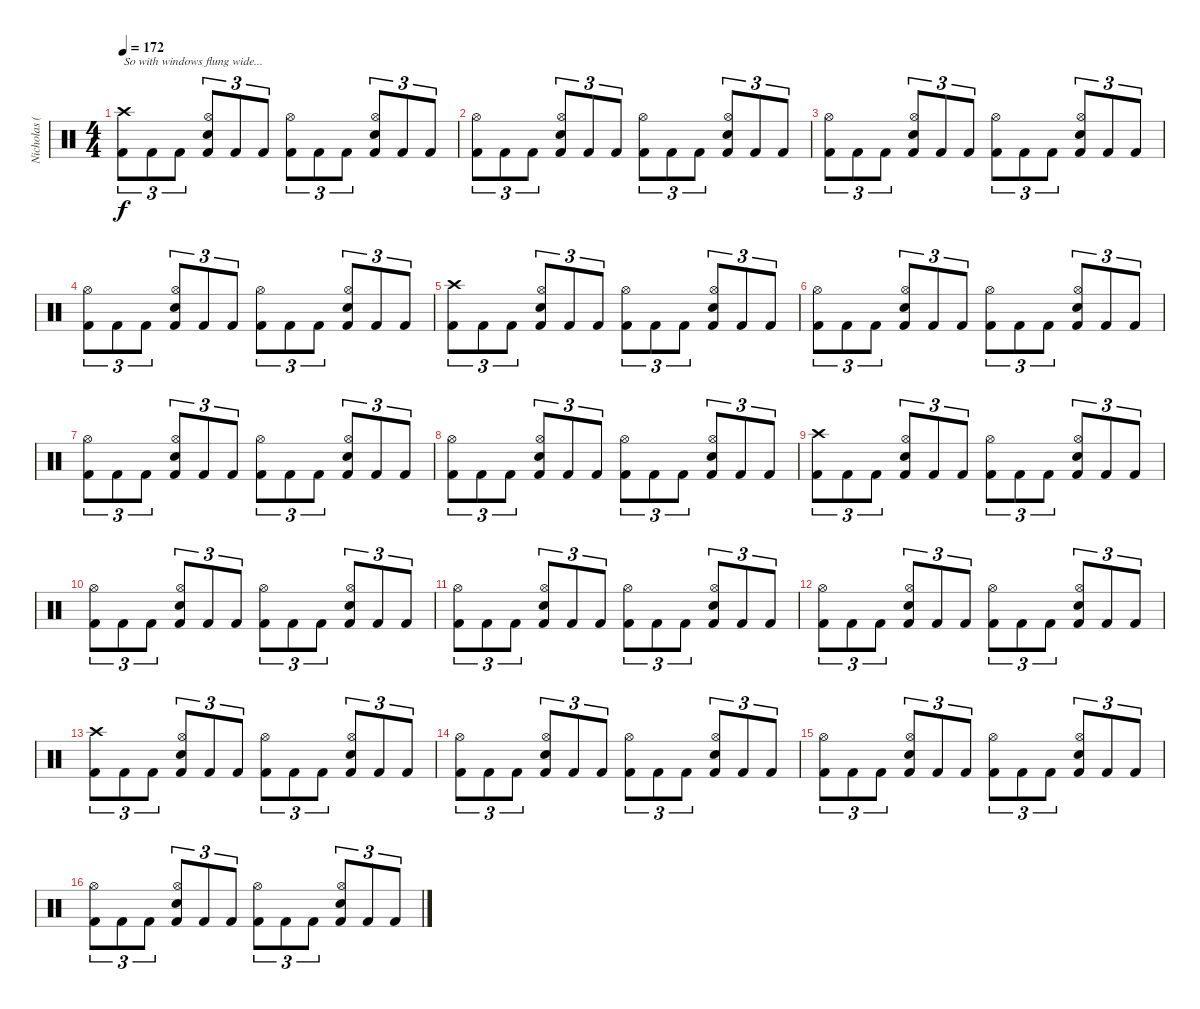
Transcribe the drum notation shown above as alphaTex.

\track ("Nicholas (Drums)" "Nicholas (") {instrument percussion}
\staff {score}
\articulation defaults
\ts (4 4)
\tempo 172
\clef neutral
\ks c
("Crash high (hit)" "Kick (hit) 2").8{tu (3 2) txt "So with windows flung wide..." dy f balance 8} "Kick (hit) 2".8{tu (3 2)} "Kick (hit) 2".8{tu (3 2)} ("Hi-Hat (open)" "Electric Snare (hit)" "Kick (hit) 2").8{tu (3 2)} "Kick (hit) 2".8{tu (3 2)} "Kick (hit) 2".8{tu (3 2)} ("Hi-Hat (open)" "Kick (hit) 2").8{tu (3 2)} "Kick (hit) 2".8{tu (3 2)} "Kick (hit) 2".8{tu (3 2)} ("Hi-Hat (open)" "Electric Snare (hit)" "Kick (hit) 2").8{tu (3 2)} "Kick (hit) 2".8{tu (3 2)} "Kick (hit) 2".8{tu (3 2)} |
("Hi-Hat (open)" "Kick (hit) 2").8{tu (3 2)} "Kick (hit) 2".8{tu (3 2)} "Kick (hit) 2".8{tu (3 2)} ("Hi-Hat (open)" "Electric Snare (hit)" "Kick (hit) 2").8{tu (3 2)} "Kick (hit) 2".8{tu (3 2)} "Kick (hit) 2".8{tu (3 2)} ("Hi-Hat (open)" "Kick (hit) 2").8{tu (3 2)} "Kick (hit) 2".8{tu (3 2)} "Kick (hit) 2".8{tu (3 2)} ("Hi-Hat (open)" "Electric Snare (hit)" "Kick (hit) 2").8{tu (3 2)} "Kick (hit) 2".8{tu (3 2)} "Kick (hit) 2".8{tu (3 2)} |
("Hi-Hat (open)" "Kick (hit) 2").8{tu (3 2)} "Kick (hit) 2".8{tu (3 2)} "Kick (hit) 2".8{tu (3 2)} ("Hi-Hat (open)" "Electric Snare (hit)" "Kick (hit) 2").8{tu (3 2)} "Kick (hit) 2".8{tu (3 2)} "Kick (hit) 2".8{tu (3 2)} ("Hi-Hat (open)" "Kick (hit) 2").8{tu (3 2)} "Kick (hit) 2".8{tu (3 2)} "Kick (hit) 2".8{tu (3 2)} ("Hi-Hat (open)" "Electric Snare (hit)" "Kick (hit) 2").8{tu (3 2)} "Kick (hit) 2".8{tu (3 2)} "Kick (hit) 2".8{tu (3 2)} |
("Hi-Hat (open)" "Kick (hit) 2").8{tu (3 2)} "Kick (hit) 2".8{tu (3 2)} "Kick (hit) 2".8{tu (3 2)} ("Hi-Hat (open)" "Electric Snare (hit)" "Kick (hit) 2").8{tu (3 2)} "Kick (hit) 2".8{tu (3 2)} "Kick (hit) 2".8{tu (3 2)} ("Hi-Hat (open)" "Kick (hit) 2").8{tu (3 2)} "Kick (hit) 2".8{tu (3 2)} "Kick (hit) 2".8{tu (3 2)} ("Hi-Hat (open)" "Electric Snare (hit)" "Kick (hit) 2").8{tu (3 2)} "Kick (hit) 2".8{tu (3 2)} "Kick (hit) 2".8{tu (3 2)} |
("Crash high (hit)" "Kick (hit) 2").8{tu (3 2)} "Kick (hit) 2".8{tu (3 2)} "Kick (hit) 2".8{tu (3 2)} ("Hi-Hat (open)" "Electric Snare (hit)" "Kick (hit) 2").8{tu (3 2)} "Kick (hit) 2".8{tu (3 2)} "Kick (hit) 2".8{tu (3 2)} ("Hi-Hat (open)" "Kick (hit) 2").8{tu (3 2)} "Kick (hit) 2".8{tu (3 2)} "Kick (hit) 2".8{tu (3 2)} ("Hi-Hat (open)" "Electric Snare (hit)" "Kick (hit) 2").8{tu (3 2)} "Kick (hit) 2".8{tu (3 2)} "Kick (hit) 2".8{tu (3 2)} |
("Hi-Hat (open)" "Kick (hit) 2").8{tu (3 2)} "Kick (hit) 2".8{tu (3 2)} "Kick (hit) 2".8{tu (3 2)} ("Hi-Hat (open)" "Electric Snare (hit)" "Kick (hit) 2").8{tu (3 2)} "Kick (hit) 2".8{tu (3 2)} "Kick (hit) 2".8{tu (3 2)} ("Hi-Hat (open)" "Kick (hit) 2").8{tu (3 2)} "Kick (hit) 2".8{tu (3 2)} "Kick (hit) 2".8{tu (3 2)} ("Hi-Hat (open)" "Electric Snare (hit)" "Kick (hit) 2").8{tu (3 2)} "Kick (hit) 2".8{tu (3 2)} "Kick (hit) 2".8{tu (3 2)} |
("Hi-Hat (open)" "Kick (hit) 2").8{tu (3 2)} "Kick (hit) 2".8{tu (3 2)} "Kick (hit) 2".8{tu (3 2)} ("Hi-Hat (open)" "Electric Snare (hit)" "Kick (hit) 2").8{tu (3 2)} "Kick (hit) 2".8{tu (3 2)} "Kick (hit) 2".8{tu (3 2)} ("Hi-Hat (open)" "Kick (hit) 2").8{tu (3 2)} "Kick (hit) 2".8{tu (3 2)} "Kick (hit) 2".8{tu (3 2)} ("Hi-Hat (open)" "Electric Snare (hit)" "Kick (hit) 2").8{tu (3 2)} "Kick (hit) 2".8{tu (3 2)} "Kick (hit) 2".8{tu (3 2)} |
("Hi-Hat (open)" "Kick (hit) 2").8{tu (3 2)} "Kick (hit) 2".8{tu (3 2)} "Kick (hit) 2".8{tu (3 2)} ("Hi-Hat (open)" "Electric Snare (hit)" "Kick (hit) 2").8{tu (3 2)} "Kick (hit) 2".8{tu (3 2)} "Kick (hit) 2".8{tu (3 2)} ("Hi-Hat (open)" "Kick (hit) 2").8{tu (3 2)} "Kick (hit) 2".8{tu (3 2)} "Kick (hit) 2".8{tu (3 2)} ("Hi-Hat (open)" "Electric Snare (hit)" "Kick (hit) 2").8{tu (3 2)} "Kick (hit) 2".8{tu (3 2)} "Kick (hit) 2".8{tu (3 2)} |
("Crash high (hit)" "Kick (hit) 2").8{tu (3 2)} "Kick (hit) 2".8{tu (3 2)} "Kick (hit) 2".8{tu (3 2)} ("Hi-Hat (open)" "Electric Snare (hit)" "Kick (hit) 2").8{tu (3 2)} "Kick (hit) 2".8{tu (3 2)} "Kick (hit) 2".8{tu (3 2)} ("Hi-Hat (open)" "Kick (hit) 2").8{tu (3 2)} "Kick (hit) 2".8{tu (3 2)} "Kick (hit) 2".8{tu (3 2)} ("Hi-Hat (open)" "Electric Snare (hit)" "Kick (hit) 2").8{tu (3 2)} "Kick (hit) 2".8{tu (3 2)} "Kick (hit) 2".8{tu (3 2)} |
("Hi-Hat (open)" "Kick (hit) 2").8{tu (3 2)} "Kick (hit) 2".8{tu (3 2)} "Kick (hit) 2".8{tu (3 2)} ("Hi-Hat (open)" "Electric Snare (hit)" "Kick (hit) 2").8{tu (3 2)} "Kick (hit) 2".8{tu (3 2)} "Kick (hit) 2".8{tu (3 2)} ("Hi-Hat (open)" "Kick (hit) 2").8{tu (3 2)} "Kick (hit) 2".8{tu (3 2)} "Kick (hit) 2".8{tu (3 2)} ("Hi-Hat (open)" "Electric Snare (hit)" "Kick (hit) 2").8{tu (3 2)} "Kick (hit) 2".8{tu (3 2)} "Kick (hit) 2".8{tu (3 2)} |
("Hi-Hat (open)" "Kick (hit) 2").8{tu (3 2)} "Kick (hit) 2".8{tu (3 2)} "Kick (hit) 2".8{tu (3 2)} ("Hi-Hat (open)" "Electric Snare (hit)" "Kick (hit) 2").8{tu (3 2)} "Kick (hit) 2".8{tu (3 2)} "Kick (hit) 2".8{tu (3 2)} ("Hi-Hat (open)" "Kick (hit) 2").8{tu (3 2)} "Kick (hit) 2".8{tu (3 2)} "Kick (hit) 2".8{tu (3 2)} ("Hi-Hat (open)" "Electric Snare (hit)" "Kick (hit) 2").8{tu (3 2)} "Kick (hit) 2".8{tu (3 2)} "Kick (hit) 2".8{tu (3 2)} |
("Hi-Hat (open)" "Kick (hit) 2").8{tu (3 2)} "Kick (hit) 2".8{tu (3 2)} "Kick (hit) 2".8{tu (3 2)} ("Hi-Hat (open)" "Electric Snare (hit)" "Kick (hit) 2").8{tu (3 2)} "Kick (hit) 2".8{tu (3 2)} "Kick (hit) 2".8{tu (3 2)} ("Hi-Hat (open)" "Kick (hit) 2").8{tu (3 2)} "Kick (hit) 2".8{tu (3 2)} "Kick (hit) 2".8{tu (3 2)} ("Hi-Hat (open)" "Electric Snare (hit)" "Kick (hit) 2").8{tu (3 2)} "Kick (hit) 2".8{tu (3 2)} "Kick (hit) 2".8{tu (3 2)} |
("Crash high (hit)" "Kick (hit) 2").8{tu (3 2)} "Kick (hit) 2".8{tu (3 2)} "Kick (hit) 2".8{tu (3 2)} ("Hi-Hat (open)" "Electric Snare (hit)" "Kick (hit) 2").8{tu (3 2)} "Kick (hit) 2".8{tu (3 2)} "Kick (hit) 2".8{tu (3 2)} ("Hi-Hat (open)" "Kick (hit) 2").8{tu (3 2)} "Kick (hit) 2".8{tu (3 2)} "Kick (hit) 2".8{tu (3 2)} ("Hi-Hat (open)" "Electric Snare (hit)" "Kick (hit) 2").8{tu (3 2)} "Kick (hit) 2".8{tu (3 2)} "Kick (hit) 2".8{tu (3 2)} |
("Hi-Hat (open)" "Kick (hit) 2").8{tu (3 2)} "Kick (hit) 2".8{tu (3 2)} "Kick (hit) 2".8{tu (3 2)} ("Hi-Hat (open)" "Electric Snare (hit)" "Kick (hit) 2").8{tu (3 2)} "Kick (hit) 2".8{tu (3 2)} "Kick (hit) 2".8{tu (3 2)} ("Hi-Hat (open)" "Kick (hit) 2").8{tu (3 2)} "Kick (hit) 2".8{tu (3 2)} "Kick (hit) 2".8{tu (3 2)} ("Hi-Hat (open)" "Electric Snare (hit)" "Kick (hit) 2").8{tu (3 2)} "Kick (hit) 2".8{tu (3 2)} "Kick (hit) 2".8{tu (3 2)} |
("Hi-Hat (open)" "Kick (hit) 2").8{tu (3 2)} "Kick (hit) 2".8{tu (3 2)} "Kick (hit) 2".8{tu (3 2)} ("Hi-Hat (open)" "Electric Snare (hit)" "Kick (hit) 2").8{tu (3 2)} "Kick (hit) 2".8{tu (3 2)} "Kick (hit) 2".8{tu (3 2)} ("Hi-Hat (open)" "Kick (hit) 2").8{tu (3 2)} "Kick (hit) 2".8{tu (3 2)} "Kick (hit) 2".8{tu (3 2)} ("Hi-Hat (open)" "Electric Snare (hit)" "Kick (hit) 2").8{tu (3 2)} "Kick (hit) 2".8{tu (3 2)} "Kick (hit) 2".8{tu (3 2)} |
("Hi-Hat (open)" "Kick (hit) 2").8{tu (3 2)} "Kick (hit) 2".8{tu (3 2)} "Kick (hit) 2".8{tu (3 2)} ("Hi-Hat (open)" "Electric Snare (hit)" "Kick (hit) 2").8{tu (3 2)} "Kick (hit) 2".8{tu (3 2)} "Kick (hit) 2".8{tu (3 2)} ("Hi-Hat (open)" "Kick (hit) 2").8{tu (3 2)} "Kick (hit) 2".8{tu (3 2)} "Kick (hit) 2".8{tu (3 2)} ("Hi-Hat (open)" "Electric Snare (hit)" "Kick (hit) 2").8{tu (3 2)} "Kick (hit) 2".8{tu (3 2)} "Kick (hit) 2".8{tu (3 2)}
